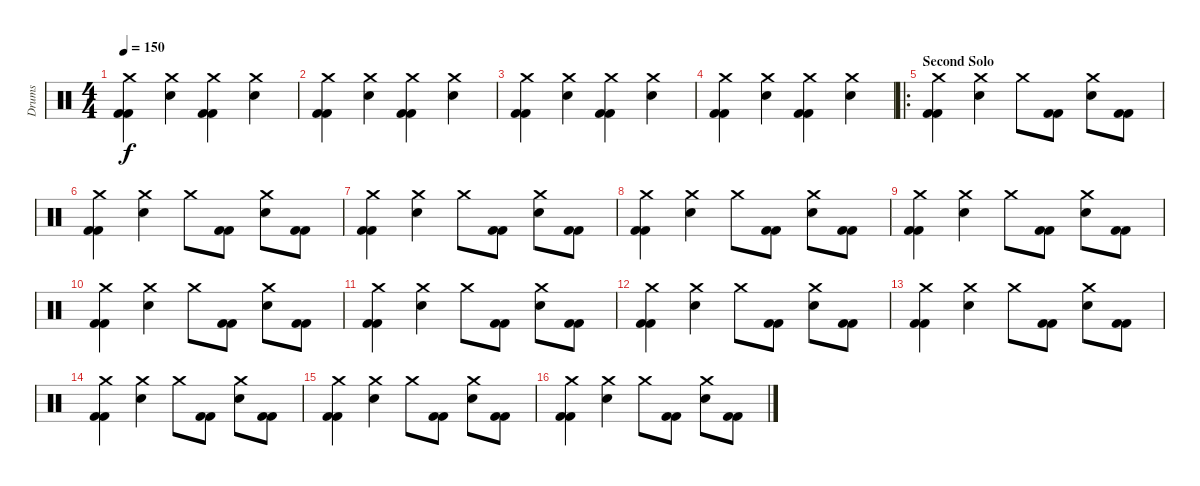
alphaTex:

\track ("Drums" "Drums") {instrument percussion}
\staff {score}
\articulation defaults
\ts (4 4)
\tempo 150
\clef neutral
\ks c
("Crash medium (hit)" "Kick (hit) 2" "Kick (hit) 2").4{dy f} ("Electric Snare (hit)" "Crash medium (hit)").4 ("Crash medium (hit)" "Kick (hit) 2" "Kick (hit) 2").4 ("Electric Snare (hit)" "Crash medium (hit)").4 |
("Crash medium (hit)" "Kick (hit) 2" "Kick (hit) 2").4 ("Electric Snare (hit)" "Crash medium (hit)").4 ("Crash medium (hit)" "Kick (hit) 2" "Kick (hit) 2").4 ("Electric Snare (hit)" "Crash medium (hit)").4 |
("Crash medium (hit)" "Kick (hit) 2" "Kick (hit) 2").4 ("Electric Snare (hit)" "Crash medium (hit)").4 ("Crash medium (hit)" "Kick (hit) 2" "Kick (hit) 2").4 ("Electric Snare (hit)" "Crash medium (hit)").4 |
("Crash medium (hit)" "Kick (hit) 2" "Kick (hit) 2").4 ("Electric Snare (hit)" "Crash medium (hit)").4 ("Crash medium (hit)" "Kick (hit) 2" "Kick (hit) 2").4 ("Electric Snare (hit)" "Crash medium (hit)").4 |
\ro
\section ("" "Second Solo")
("Crash medium (hit)" "Kick (hit) 2" "Kick (hit) 2").4 ("Electric Snare (hit)" "Crash medium (hit)").4 "Crash medium (hit)".8 ("Kick (hit) 2" "Kick (hit) 2").8 ("Crash medium (hit)" "Electric Snare (hit)").8 ("Kick (hit) 2" "Kick (hit) 2").8 |
("Crash medium (hit)" "Kick (hit) 2" "Kick (hit) 2").4 ("Electric Snare (hit)" "Crash medium (hit)").4 "Crash medium (hit)".8 ("Kick (hit) 2" "Kick (hit) 2").8 ("Crash medium (hit)" "Electric Snare (hit)").8 ("Kick (hit) 2" "Kick (hit) 2").8 |
("Crash medium (hit)" "Kick (hit) 2" "Kick (hit) 2").4 ("Electric Snare (hit)" "Crash medium (hit)").4 "Crash medium (hit)".8 ("Kick (hit) 2" "Kick (hit) 2").8 ("Crash medium (hit)" "Electric Snare (hit)").8 ("Kick (hit) 2" "Kick (hit) 2").8 |
("Crash medium (hit)" "Kick (hit) 2" "Kick (hit) 2").4 ("Electric Snare (hit)" "Crash medium (hit)").4 "Crash medium (hit)".8 ("Kick (hit) 2" "Kick (hit) 2").8 ("Crash medium (hit)" "Electric Snare (hit)").8 ("Kick (hit) 2" "Kick (hit) 2").8 |
("Crash medium (hit)" "Kick (hit) 2" "Kick (hit) 2").4 ("Electric Snare (hit)" "Crash medium (hit)").4 "Crash medium (hit)".8 ("Kick (hit) 2" "Kick (hit) 2").8 ("Crash medium (hit)" "Electric Snare (hit)").8 ("Kick (hit) 2" "Kick (hit) 2").8 |
("Crash medium (hit)" "Kick (hit) 2" "Kick (hit) 2").4 ("Electric Snare (hit)" "Crash medium (hit)").4 "Crash medium (hit)".8 ("Kick (hit) 2" "Kick (hit) 2").8 ("Crash medium (hit)" "Electric Snare (hit)").8 ("Kick (hit) 2" "Kick (hit) 2").8 |
("Crash medium (hit)" "Kick (hit) 2" "Kick (hit) 2").4 ("Electric Snare (hit)" "Crash medium (hit)").4 "Crash medium (hit)".8 ("Kick (hit) 2" "Kick (hit) 2").8 ("Crash medium (hit)" "Electric Snare (hit)").8 ("Kick (hit) 2" "Kick (hit) 2").8 |
("Crash medium (hit)" "Kick (hit) 2" "Kick (hit) 2").4 ("Electric Snare (hit)" "Crash medium (hit)").4 "Crash medium (hit)".8 ("Kick (hit) 2" "Kick (hit) 2").8 ("Crash medium (hit)" "Electric Snare (hit)").8 ("Kick (hit) 2" "Kick (hit) 2").8 |
("Crash medium (hit)" "Kick (hit) 2" "Kick (hit) 2").4 ("Electric Snare (hit)" "Crash medium (hit)").4 "Crash medium (hit)".8 ("Kick (hit) 2" "Kick (hit) 2").8 ("Crash medium (hit)" "Electric Snare (hit)").8 ("Kick (hit) 2" "Kick (hit) 2").8 |
("Crash medium (hit)" "Kick (hit) 2" "Kick (hit) 2").4 ("Electric Snare (hit)" "Crash medium (hit)").4 "Crash medium (hit)".8 ("Kick (hit) 2" "Kick (hit) 2").8 ("Crash medium (hit)" "Electric Snare (hit)").8 ("Kick (hit) 2" "Kick (hit) 2").8 |
("Crash medium (hit)" "Kick (hit) 2" "Kick (hit) 2").4 ("Electric Snare (hit)" "Crash medium (hit)").4 "Crash medium (hit)".8 ("Kick (hit) 2" "Kick (hit) 2").8 ("Crash medium (hit)" "Electric Snare (hit)").8 ("Kick (hit) 2" "Kick (hit) 2").8 |
("Crash medium (hit)" "Kick (hit) 2" "Kick (hit) 2").4 ("Electric Snare (hit)" "Crash medium (hit)").4 "Crash medium (hit)".8 ("Kick (hit) 2" "Kick (hit) 2").8 ("Crash medium (hit)" "Electric Snare (hit)").8 ("Kick (hit) 2" "Kick (hit) 2").8
